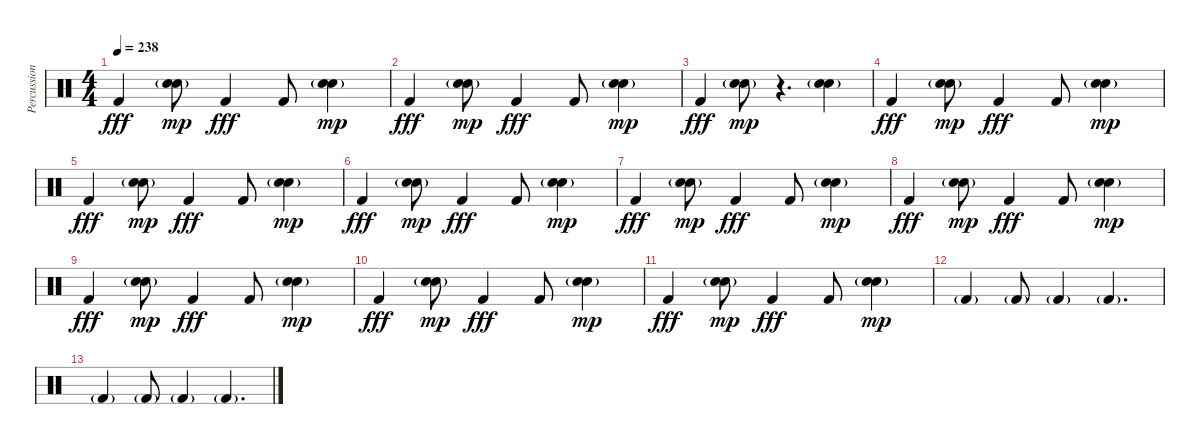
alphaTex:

\track ("Percussion" "Percussion") {instrument percussion}
\staff {score}
\articulation defaults
\ts (4 4)
\tempo 238
\clef neutral
\ks c "Kick (hit) 2".4{dy fff}
("Hand Clap (hit)"{g} "Hand Clap (hit)"{g}).8{bd 480 dy mp} "Kick (hit) 2".4{dy fff} "Kick (hit) 2".8 ("Hand Clap (hit)"{g} "Hand Clap (hit)"{g}).4{bd 480 dy mp} |
"Kick (hit) 2".4{dy fff} ("Hand Clap (hit)"{g} "Hand Clap (hit)"{g}).8{bd 480 dy mp} "Kick (hit) 2".4{dy fff} "Kick (hit) 2".8 ("Hand Clap (hit)"{g} "Hand Clap (hit)"{g}).4{bd 480 dy mp} |
"Kick (hit) 2".4{dy fff} ("Hand Clap (hit)"{g} "Hand Clap (hit)"{g}).8{bd 480 dy mp} r.4{d} ("Hand Clap (hit)"{g} "Hand Clap (hit)"{g}).4{bd 480} |
"Kick (hit) 2".4{dy fff} ("Hand Clap (hit)"{g} "Hand Clap (hit)"{g}).8{bd 480 dy mp} "Kick (hit) 2".4{dy fff} "Kick (hit) 2".8 ("Hand Clap (hit)"{g} "Hand Clap (hit)"{g}).4{bd 480 dy mp} |
"Kick (hit) 2".4{dy fff} ("Hand Clap (hit)"{g} "Hand Clap (hit)"{g}).8{bd 480 dy mp} "Kick (hit) 2".4{dy fff} "Kick (hit) 2".8 ("Hand Clap (hit)"{g} "Hand Clap (hit)"{g}).4{bd 480 dy mp} |
"Kick (hit) 2".4{dy fff} ("Hand Clap (hit)"{g} "Hand Clap (hit)"{g}).8{bd 480 dy mp} "Kick (hit) 2".4{dy fff} "Kick (hit) 2".8 ("Hand Clap (hit)"{g} "Hand Clap (hit)"{g}).4{bd 480 dy mp} |
"Kick (hit) 2".4{dy fff} ("Hand Clap (hit)"{g} "Hand Clap (hit)"{g}).8{bd 480 dy mp} "Kick (hit) 2".4{dy fff} "Kick (hit) 2".8 ("Hand Clap (hit)"{g} "Hand Clap (hit)"{g}).4{bd 480 dy mp} |
"Kick (hit) 2".4{dy fff} ("Hand Clap (hit)"{g} "Hand Clap (hit)"{g}).8{bd 480 dy mp} "Kick (hit) 2".4{dy fff} "Kick (hit) 2".8 ("Hand Clap (hit)"{g} "Hand Clap (hit)"{g}).4{bd 480 dy mp} |
"Kick (hit) 2".4{dy fff} ("Hand Clap (hit)"{g} "Hand Clap (hit)"{g}).8{bd 480 dy mp} "Kick (hit) 2".4{dy fff} "Kick (hit) 2".8 ("Hand Clap (hit)"{g} "Hand Clap (hit)"{g}).4{bd 480 dy mp} |
"Kick (hit) 2".4{dy fff} ("Hand Clap (hit)"{g} "Hand Clap (hit)"{g}).8{bd 480 dy mp} "Kick (hit) 2".4{dy fff} "Kick (hit) 2".8 ("Hand Clap (hit)"{g} "Hand Clap (hit)"{g}).4{bd 480 dy mp} |
"Kick (hit) 2".4{dy fff} ("Hand Clap (hit)"{g} "Hand Clap (hit)"{g}).8{bd 480 dy mp} "Kick (hit) 2".4{dy fff} "Kick (hit) 2".8 ("Hand Clap (hit)"{g} "Hand Clap (hit)"{g}).4{bd 480 dy mp} |
"Kick (hit) 2"{g}.4 "Kick (hit) 2"{g}.8 "Kick (hit) 2"{g}.4 "Kick (hit) 2"{g}.4{d} |
"Kick (hit) 2"{g}.4 "Kick (hit) 2"{g}.8 "Kick (hit) 2"{g}.4 "Kick (hit) 2"{g}.4{d}
